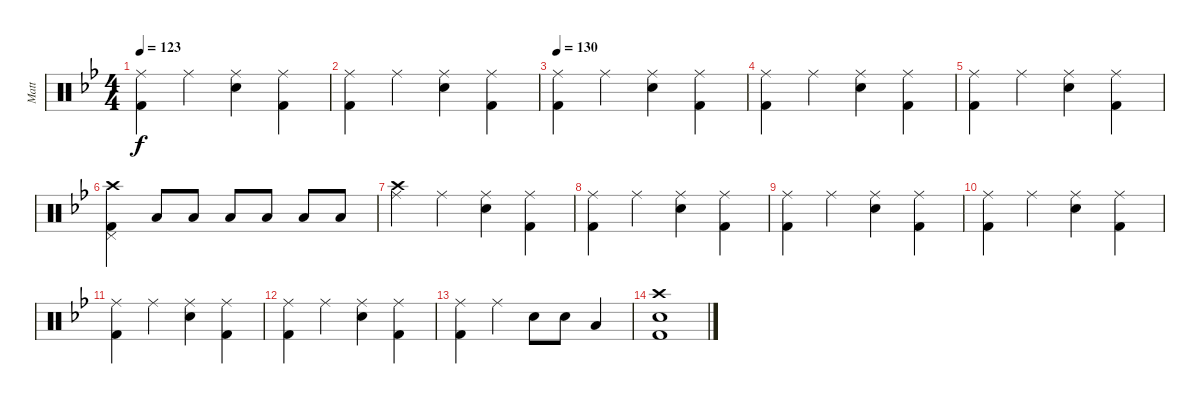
\track ("Matt" "Matt") {instrument percussion}
\staff {score}
\articulation defaults
\ts (4 4)
\tempo 123
\clef neutral
\ks bb
("Ride (middle)" "Kick (hit) 2").4{dy f} "Ride (middle)".4 ("Ride (middle)" "Snare (hit) 2").4 ("Ride (middle)" "Kick (hit) 2").4 |
("Ride (middle)" "Kick (hit) 2").4 "Ride (middle)".4 ("Ride (middle)" "Snare (hit) 2").4 ("Ride (middle)" "Kick (hit) 2").4 |
\tempo 130
("Ride (middle)" "Kick (hit) 2").4 "Ride (middle)".4 ("Ride (middle)" "Snare (hit) 2").4 ("Ride (middle)" "Kick (hit) 2").4 |
("Ride (middle)" "Kick (hit) 2").4 "Ride (middle)".4 ("Ride (middle)" "Snare (hit) 2").4 ("Ride (middle)" "Kick (hit) 2").4 |
("Ride (middle)" "Kick (hit) 2").4 "Ride (middle)".4 ("Ride (middle)" "Snare (hit) 2").4 ("Ride (middle)" "Kick (hit) 2").4 |
("Pedal Hi-Hat (hit)" "Kick (hit) 2" "Crash high (hit)").4 "Low Floor Tom (hit)".8 "Low Floor Tom (hit)".8 "Low Floor Tom (hit)".8 "Low Floor Tom (hit)".8 "Low Floor Tom (hit)".8 "Low Floor Tom (hit)".8 |
("Ride (middle)" "Crash high (hit)").4 "Ride (middle)".4 ("Ride (middle)" "Snare (hit) 2").4 ("Ride (middle)" "Kick (hit) 2").4 |
("Ride (middle)" "Kick (hit) 2").4 "Ride (middle)".4 ("Ride (middle)" "Snare (hit) 2").4 ("Ride (middle)" "Kick (hit) 2").4 |
("Ride (middle)" "Kick (hit) 2").4 "Ride (middle)".4 ("Ride (middle)" "Snare (hit) 2").4 ("Ride (middle)" "Kick (hit) 2").4 |
("Ride (middle)" "Kick (hit) 2").4 "Ride (middle)".4 ("Ride (middle)" "Snare (hit) 2").4 ("Ride (middle)" "Kick (hit) 2").4 |
("Ride (middle)" "Kick (hit) 2").4 "Ride (middle)".4 ("Ride (middle)" "Snare (hit) 2").4 ("Ride (middle)" "Kick (hit) 2").4 |
("Ride (middle)" "Kick (hit) 2").4 "Ride (middle)".4 ("Ride (middle)" "Snare (hit) 2").4 ("Ride (middle)" "Kick (hit) 2").4 |
("Ride (middle)" "Kick (hit) 2").4 "Ride (middle)".4 "Snare (hit) 2".8 "Snare (hit) 2".8 "Low Floor Tom (hit)".4 |
("Crash high (hit)" "Snare (hit) 2" "Kick (hit) 2").1
